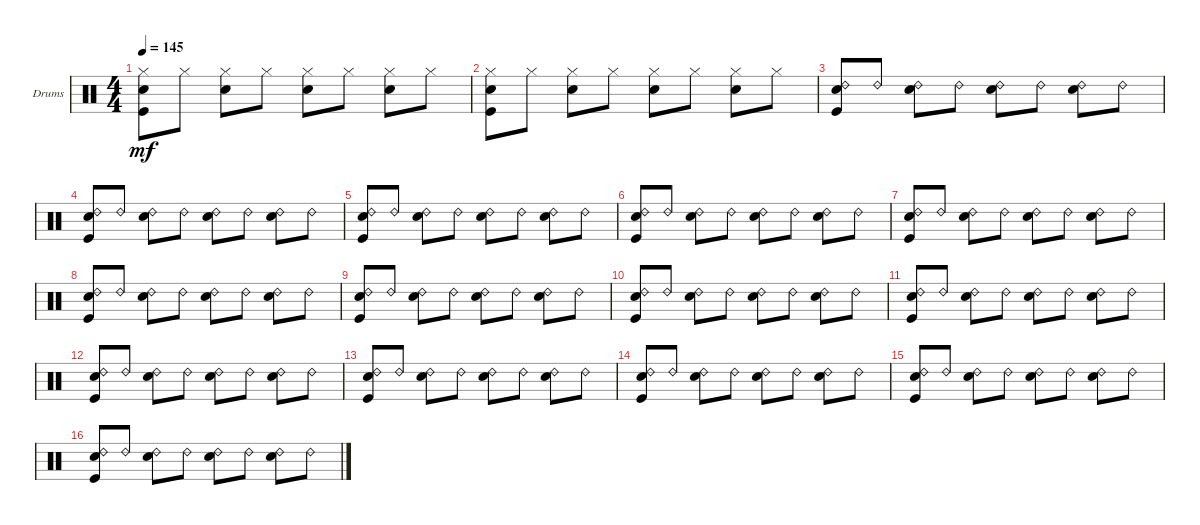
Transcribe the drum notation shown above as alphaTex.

\bracketExtendMode groupsimilarinstruments
\firstSystemTrackNameOrientation horizontal
\otherSystemsTrackNameOrientation horizontal
\track ("Drumkit" "Drums") {instrument percussion}
\staff {score}
\articulation defaults
\ts (4 4)
\tempo 145
\clef neutral
\ks c
("Hi-Hat (closed)" "Kick (hit)" "Snare (hit) 2").8{dy mf} "Hi-Hat (closed)".8 ("Hi-Hat (closed)" "Snare (hit) 2").8 "Hi-Hat (closed)".8 ("Hi-Hat (closed)" "Snare (hit) 2").8 "Hi-Hat (closed)".8 ("Hi-Hat (closed)" "Snare (hit) 2").8 "Hi-Hat (closed)".8 |
("Hi-Hat (closed)" "Kick (hit)" "Snare (hit) 2").8 "Hi-Hat (closed)".8 ("Hi-Hat (closed)" "Snare (hit) 2").8 "Hi-Hat (closed)".8 ("Hi-Hat (closed)" "Snare (hit) 2").8 "Hi-Hat (closed)".8 ("Hi-Hat (closed)" "Snare (hit) 2").8 "Hi-Hat (closed)".8 |
("Kick (hit)" "Snare (hit) 2" "Ride (bell) 2").8 "Ride (bell) 2".8 ("Snare (hit) 2" "Ride (bell) 2").8 "Ride (bell) 2".8 ("Snare (hit) 2" "Ride (bell) 2").8 "Ride (bell) 2".8 ("Snare (hit) 2" "Ride (bell) 2").8 "Ride (bell) 2".8 |
("Kick (hit)" "Snare (hit) 2" "Ride (bell) 2").8 "Ride (bell) 2".8 ("Snare (hit) 2" "Ride (bell) 2").8 "Ride (bell) 2".8 ("Snare (hit) 2" "Ride (bell) 2").8 "Ride (bell) 2".8 ("Snare (hit) 2" "Ride (bell) 2").8 "Ride (bell) 2".8 |
("Kick (hit)" "Snare (hit) 2" "Ride (bell) 2").8 "Ride (bell) 2".8 ("Snare (hit) 2" "Ride (bell) 2").8 "Ride (bell) 2".8 ("Snare (hit) 2" "Ride (bell) 2").8 "Ride (bell) 2".8 ("Snare (hit) 2" "Ride (bell) 2").8 "Ride (bell) 2".8 |
("Kick (hit)" "Snare (hit) 2" "Ride (bell) 2").8 "Ride (bell) 2".8 ("Snare (hit) 2" "Ride (bell) 2").8 "Ride (bell) 2".8 ("Snare (hit) 2" "Ride (bell) 2").8 "Ride (bell) 2".8 ("Snare (hit) 2" "Ride (bell) 2").8 "Ride (bell) 2".8 |
("Kick (hit)" "Snare (hit) 2" "Ride (bell) 2").8 "Ride (bell) 2".8 ("Snare (hit) 2" "Ride (bell) 2").8 "Ride (bell) 2".8 ("Snare (hit) 2" "Ride (bell) 2").8 "Ride (bell) 2".8 ("Snare (hit) 2" "Ride (bell) 2").8 "Ride (bell) 2".8 |
("Kick (hit)" "Snare (hit) 2" "Ride (bell) 2").8 "Ride (bell) 2".8 ("Snare (hit) 2" "Ride (bell) 2").8 "Ride (bell) 2".8 ("Snare (hit) 2" "Ride (bell) 2").8 "Ride (bell) 2".8 ("Snare (hit) 2" "Ride (bell) 2").8 "Ride (bell) 2".8 |
("Kick (hit)" "Snare (hit) 2" "Ride (bell) 2").8 "Ride (bell) 2".8 ("Snare (hit) 2" "Ride (bell) 2").8 "Ride (bell) 2".8 ("Snare (hit) 2" "Ride (bell) 2").8 "Ride (bell) 2".8 ("Snare (hit) 2" "Ride (bell) 2").8 "Ride (bell) 2".8 |
("Kick (hit)" "Snare (hit) 2" "Ride (bell) 2").8 "Ride (bell) 2".8 ("Snare (hit) 2" "Ride (bell) 2").8 "Ride (bell) 2".8 ("Snare (hit) 2" "Ride (bell) 2").8 "Ride (bell) 2".8 ("Snare (hit) 2" "Ride (bell) 2").8 "Ride (bell) 2".8 |
("Kick (hit)" "Snare (hit) 2" "Ride (bell) 2").8 "Ride (bell) 2".8 ("Snare (hit) 2" "Ride (bell) 2").8 "Ride (bell) 2".8 ("Snare (hit) 2" "Ride (bell) 2").8 "Ride (bell) 2".8 ("Snare (hit) 2" "Ride (bell) 2").8 "Ride (bell) 2".8 |
("Kick (hit)" "Snare (hit) 2" "Ride (bell) 2").8 "Ride (bell) 2".8 ("Snare (hit) 2" "Ride (bell) 2").8 "Ride (bell) 2".8 ("Snare (hit) 2" "Ride (bell) 2").8 "Ride (bell) 2".8 ("Snare (hit) 2" "Ride (bell) 2").8 "Ride (bell) 2".8 |
("Kick (hit)" "Snare (hit) 2" "Ride (bell) 2").8 "Ride (bell) 2".8 ("Snare (hit) 2" "Ride (bell) 2").8 "Ride (bell) 2".8 ("Snare (hit) 2" "Ride (bell) 2").8 "Ride (bell) 2".8 ("Snare (hit) 2" "Ride (bell) 2").8 "Ride (bell) 2".8 |
("Kick (hit)" "Snare (hit) 2" "Ride (bell) 2").8 "Ride (bell) 2".8 ("Snare (hit) 2" "Ride (bell) 2").8 "Ride (bell) 2".8 ("Snare (hit) 2" "Ride (bell) 2").8 "Ride (bell) 2".8 ("Snare (hit) 2" "Ride (bell) 2").8 "Ride (bell) 2".8 |
("Kick (hit)" "Snare (hit) 2" "Ride (bell) 2").8 "Ride (bell) 2".8 ("Snare (hit) 2" "Ride (bell) 2").8 "Ride (bell) 2".8 ("Snare (hit) 2" "Ride (bell) 2").8 "Ride (bell) 2".8 ("Snare (hit) 2" "Ride (bell) 2").8 "Ride (bell) 2".8 |
("Kick (hit)" "Snare (hit) 2" "Ride (bell) 2").8 "Ride (bell) 2".8 ("Snare (hit) 2" "Ride (bell) 2").8 "Ride (bell) 2".8 ("Snare (hit) 2" "Ride (bell) 2").8 "Ride (bell) 2".8 ("Snare (hit) 2" "Ride (bell) 2").8 "Ride (bell) 2".8
